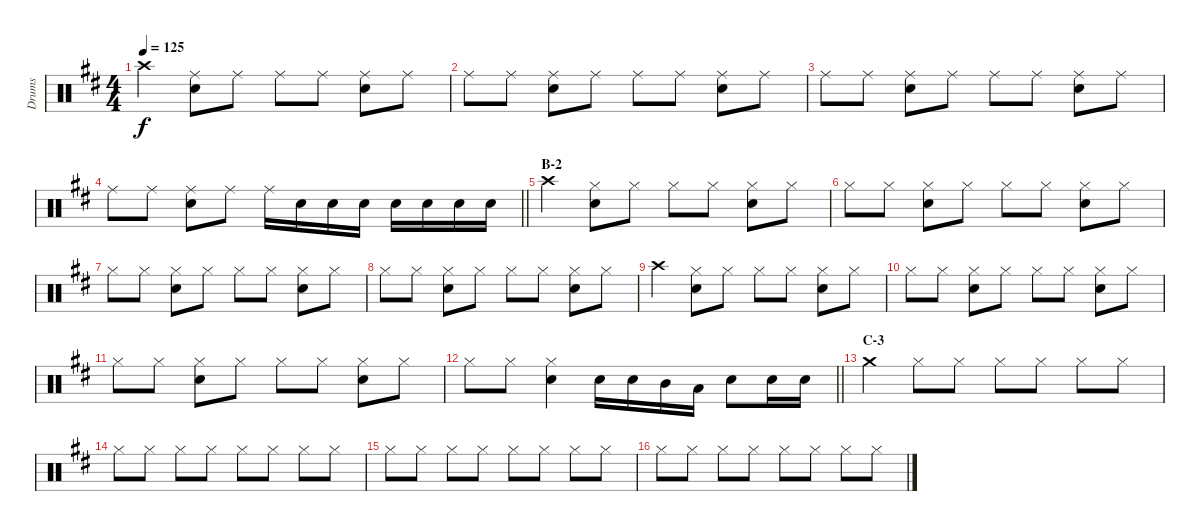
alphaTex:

\track ("Drums" "Drums") {instrument percussion}
\staff {score}
\articulation defaults
\ts (4 4)
\tempo 125
\clef neutral
\ks d "Crash high (hit)".4{dy f}
("Ride (middle)" "Snare (hit) 2").8 "Ride (middle)".8 "Ride (middle)".8 "Ride (middle)".8 ("Ride (middle)" "Snare (hit) 2").8 "Ride (middle)".8 |
"Ride (middle)".8 "Ride (middle)".8 ("Ride (middle)" "Snare (hit) 2").8 "Ride (middle)".8 "Ride (middle)".8 "Ride (middle)".8 ("Ride (middle)" "Snare (hit) 2").8 "Ride (middle)".8 |
"Ride (middle)".8 "Ride (middle)".8 ("Ride (middle)" "Snare (hit) 2").8 "Ride (middle)".8 "Ride (middle)".8 "Ride (middle)".8 ("Ride (middle)" "Snare (hit) 2").8 "Ride (middle)".8 |
\barLineRight lightlight "Ride (middle)".8 "Ride (middle)".8
("Ride (middle)" "Snare (hit) 2").8 "Ride (middle)".8 "Ride (middle)".16 "Snare (hit) 2".16 "Snare (hit) 2".16 "Snare (hit) 2".16 "Snare (hit) 2".16 "Snare (hit) 2".16 "Snare (hit) 2".16 "Snare (hit) 2".16 |
\section ("" "B-2")
"Crash high (hit)".4 ("Hi-Hat (closed)" "Snare (hit) 2").8 "Hi-Hat (closed)".8 "Hi-Hat (closed)".8 "Hi-Hat (closed)".8 ("Hi-Hat (closed)" "Snare (hit) 2").8 "Hi-Hat (closed)".8 |
"Hi-Hat (closed)".8 "Hi-Hat (closed)".8 ("Hi-Hat (closed)" "Snare (hit) 2").8 "Hi-Hat (closed)".8 "Hi-Hat (closed)".8 "Hi-Hat (closed)".8 ("Hi-Hat (closed)" "Snare (hit) 2").8 "Hi-Hat (closed)".8 |
"Hi-Hat (closed)".8 "Hi-Hat (closed)".8 ("Hi-Hat (closed)" "Snare (hit) 2").8 "Hi-Hat (closed)".8 "Hi-Hat (closed)".8 "Hi-Hat (closed)".8 ("Hi-Hat (closed)" "Snare (hit) 2").8 "Hi-Hat (closed)".8 |
"Hi-Hat (closed)".8 "Hi-Hat (closed)".8 ("Hi-Hat (closed)" "Snare (hit) 2").8 "Hi-Hat (closed)".8 "Hi-Hat (closed)".8 "Hi-Hat (closed)".8 ("Hi-Hat (closed)" "Snare (hit) 2").8 "Hi-Hat (closed)".8 |
"Crash high (hit)".4 ("Hi-Hat (closed)" "Snare (hit) 2").8 "Hi-Hat (closed)".8 "Hi-Hat (closed)".8 "Hi-Hat (closed)".8 ("Hi-Hat (closed)" "Snare (hit) 2").8 "Hi-Hat (closed)".8 |
"Hi-Hat (closed)".8 "Hi-Hat (closed)".8 ("Hi-Hat (closed)" "Snare (hit) 2").8 "Hi-Hat (closed)".8 "Hi-Hat (closed)".8 "Hi-Hat (closed)".8 ("Hi-Hat (closed)" "Snare (hit) 2").8 "Hi-Hat (closed)".8 |
"Hi-Hat (closed)".8 "Hi-Hat (closed)".8 ("Hi-Hat (closed)" "Snare (hit) 2").8 "Hi-Hat (closed)".8 "Hi-Hat (closed)".8 "Hi-Hat (closed)".8 ("Hi-Hat (closed)" "Snare (hit) 2").8 "Hi-Hat (closed)".8 |
\barLineRight lightlight "Hi-Hat (closed)".8 "Hi-Hat (closed)".8
("Hi-Hat (closed)" "Snare (hit) 2").4 "Snare (hit) 2".16 "Snare (hit) 2".16 "Mid Tom (hit)".16 "Low Tom (hit)".16 "Snare (hit) 2".8 "Snare (hit) 2".16 "Snare (hit) 2".16 |
\section ("" "C-3")
"Crash medium (hit)".4 "Hi-Hat (closed)".8 "Hi-Hat (closed)".8 "Hi-Hat (closed)".8 "Hi-Hat (closed)".8 "Hi-Hat (closed)".8 "Hi-Hat (closed)".8 |
"Hi-Hat (closed)".8 "Hi-Hat (closed)".8 "Hi-Hat (closed)".8 "Hi-Hat (closed)".8 "Hi-Hat (closed)".8 "Hi-Hat (closed)".8 "Hi-Hat (closed)".8 "Hi-Hat (closed)".8 |
"Hi-Hat (closed)".8 "Hi-Hat (closed)".8 "Hi-Hat (closed)".8 "Hi-Hat (closed)".8 "Hi-Hat (closed)".8 "Hi-Hat (closed)".8 "Hi-Hat (closed)".8 "Hi-Hat (closed)".8 |
"Hi-Hat (closed)".8 "Hi-Hat (closed)".8 "Hi-Hat (closed)".8 "Hi-Hat (closed)".8 "Hi-Hat (closed)".8 "Hi-Hat (closed)".8 "Hi-Hat (closed)".8 "Hi-Hat (closed)".8
